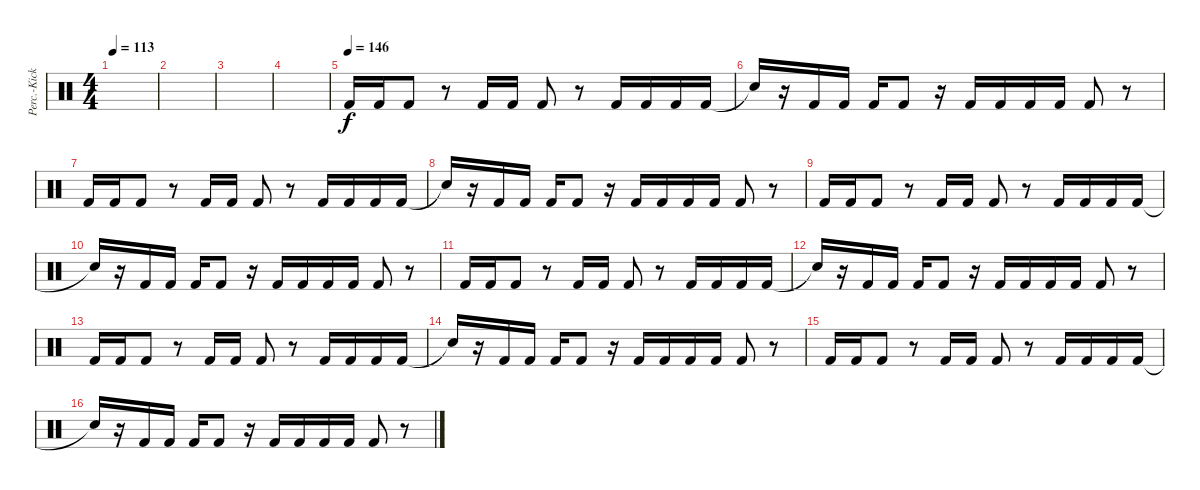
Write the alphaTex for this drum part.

\track ("Perc.-Kick" "Perc.-Kick") {instrument percussion}
\staff {score}
\articulation defaults
\ts (4 4)
\tempo 113
\clef neutral
\ks c
|
|
|
|
\tempo (146)
"Kick (hit) 2".16 "Kick (hit) 2".16 "Kick (hit) 2".8 r.8 "Kick (hit) 2".16 "Kick (hit) 2".16 "Kick (hit) 2".8 r.8 "Kick (hit) 2".16 "Kick (hit) 2".16 "Kick (hit) 2".16 "Kick (hit) 2".16 |
"Snare (hit)"{t}.16 r.16 "Kick (hit) 2".16 "Kick (hit) 2".16 "Kick (hit) 2".16 "Kick (hit) 2".8 r.16 "Kick (hit) 2".16 "Kick (hit) 2".16 "Kick (hit) 2".16 "Kick (hit) 2".16 "Kick (hit) 2".8 r.8 |
"Kick (hit) 2".16 "Kick (hit) 2".16 "Kick (hit) 2".8 r.8 "Kick (hit) 2".16 "Kick (hit) 2".16 "Kick (hit) 2".8 r.8 "Kick (hit) 2".16 "Kick (hit) 2".16 "Kick (hit) 2".16 "Kick (hit) 2".16 |
"Snare (hit)"{t}.16 r.16 "Kick (hit) 2".16 "Kick (hit) 2".16 "Kick (hit) 2".16 "Kick (hit) 2".8 r.16 "Kick (hit) 2".16 "Kick (hit) 2".16 "Kick (hit) 2".16 "Kick (hit) 2".16 "Kick (hit) 2".8 r.8 |
"Kick (hit) 2".16 "Kick (hit) 2".16 "Kick (hit) 2".8 r.8 "Kick (hit) 2".16 "Kick (hit) 2".16 "Kick (hit) 2".8 r.8 "Kick (hit) 2".16 "Kick (hit) 2".16 "Kick (hit) 2".16 "Kick (hit) 2".16 |
"Snare (hit)"{t}.16 r.16 "Kick (hit) 2".16 "Kick (hit) 2".16 "Kick (hit) 2".16 "Kick (hit) 2".8 r.16 "Kick (hit) 2".16 "Kick (hit) 2".16 "Kick (hit) 2".16 "Kick (hit) 2".16 "Kick (hit) 2".8 r.8 |
"Kick (hit) 2".16 "Kick (hit) 2".16 "Kick (hit) 2".8 r.8 "Kick (hit) 2".16 "Kick (hit) 2".16 "Kick (hit) 2".8 r.8 "Kick (hit) 2".16 "Kick (hit) 2".16 "Kick (hit) 2".16 "Kick (hit) 2".16 |
"Snare (hit)"{t}.16 r.16 "Kick (hit) 2".16 "Kick (hit) 2".16 "Kick (hit) 2".16 "Kick (hit) 2".8 r.16 "Kick (hit) 2".16 "Kick (hit) 2".16 "Kick (hit) 2".16 "Kick (hit) 2".16 "Kick (hit) 2".8 r.8 |
\section ("" "")
"Kick (hit) 2".16 "Kick (hit) 2".16 "Kick (hit) 2".8 r.8 "Kick (hit) 2".16 "Kick (hit) 2".16 "Kick (hit) 2".8 r.8 "Kick (hit) 2".16 "Kick (hit) 2".16 "Kick (hit) 2".16 "Kick (hit) 2".16 |
"Snare (hit)"{t}.16 r.16 "Kick (hit) 2".16 "Kick (hit) 2".16 "Kick (hit) 2".16 "Kick (hit) 2".8 r.16 "Kick (hit) 2".16 "Kick (hit) 2".16 "Kick (hit) 2".16 "Kick (hit) 2".16 "Kick (hit) 2".8 r.8 |
"Kick (hit) 2".16 "Kick (hit) 2".16 "Kick (hit) 2".8 r.8 "Kick (hit) 2".16 "Kick (hit) 2".16 "Kick (hit) 2".8 r.8 "Kick (hit) 2".16 "Kick (hit) 2".16 "Kick (hit) 2".16 "Kick (hit) 2".16 |
"Snare (hit)"{t}.16 r.16 "Kick (hit) 2".16 "Kick (hit) 2".16 "Kick (hit) 2".16 "Kick (hit) 2".8 r.16 "Kick (hit) 2".16 "Kick (hit) 2".16 "Kick (hit) 2".16 "Kick (hit) 2".16 "Kick (hit) 2".8 r.8
